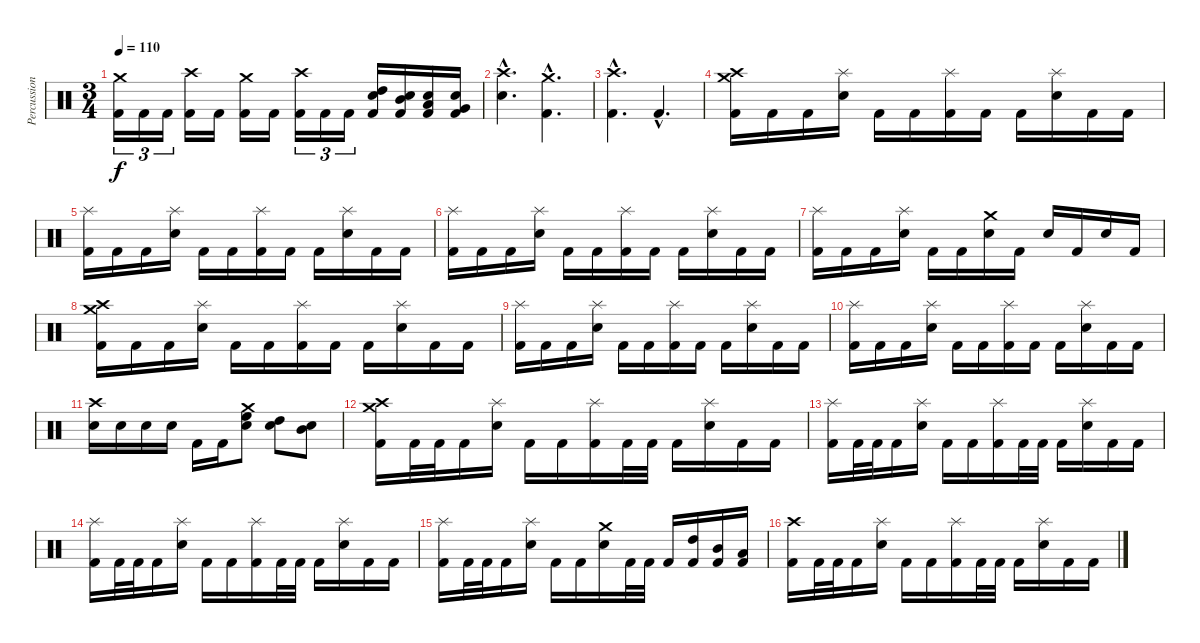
\track ("Percussion" "Percussion") {instrument percussion}
\staff {score}
\articulation defaults
\ts (3 4)
\tempo 110
\clef neutral
\ks c
("Crash medium (hit)" "Kick (hit) 2").16{tu (3 2) dy f} "Kick (hit) 2".16{tu (3 2)} "Kick (hit) 2".16{tu (3 2)} ("Crash high (hit)" "Kick (hit) 2").16 "Kick (hit) 2".16 ("Crash medium (hit)" "Kick (hit) 2").16 "Kick (hit) 2".16 ("Crash high (hit)" "Kick (hit) 2").16{tu (3 2)} "Kick (hit) 2".16{tu (3 2)} "Kick (hit) 2".16{tu (3 2)} ("High Tom (hit)" "Electric Snare (hit)" "Kick (hit) 2").16 ("Mid Tom (hit)" "Electric Snare (hit)" "Kick (hit) 2").16 ("Low Tom (hit)" "Electric Snare (hit)" "Kick (hit) 2").16 ("Very Low Tom (hit)" "Electric Snare (hit)" "Kick (hit) 2").16 |
("Crash high (hit)"{hac} "Electric Snare (hit)"{hac}).4{d} ("Crash medium (hit)"{hac} "Kick (hit) 2"{hac}).4{d} |
("Crash high (hit)"{hac} "Kick (hit) 2"{hac}).4{d} "Kick (hit) 2"{hac}.4{d} |
("Crash high (hit)" "Crash medium (hit)" "Kick (hit) 2").16 "Kick (hit) 2".16 "Kick (hit) 2".16 ("Splash (hit)" "Electric Snare (hit)").16 "Kick (hit) 2".16 "Kick (hit) 2".16 ("Splash (hit)" "Kick (hit) 2").16 "Kick (hit) 2".16 "Kick (hit) 2".16 ("Splash (hit)" "Electric Snare (hit)").16 "Kick (hit) 2".16 "Kick (hit) 2".16 |
("Splash (hit)" "Kick (hit) 2").16 "Kick (hit) 2".16 "Kick (hit) 2".16 ("Splash (hit)" "Electric Snare (hit)").16 "Kick (hit) 2".16 "Kick (hit) 2".16 ("Splash (hit)" "Kick (hit) 2").16 "Kick (hit) 2".16 "Kick (hit) 2".16 ("Splash (hit)" "Electric Snare (hit)").16 "Kick (hit) 2".16 "Kick (hit) 2".16 |
("Splash (hit)" "Kick (hit) 2").16 "Kick (hit) 2".16 "Kick (hit) 2".16 ("Splash (hit)" "Electric Snare (hit)").16 "Kick (hit) 2".16 "Kick (hit) 2".16 ("Splash (hit)" "Kick (hit) 2").16 "Kick (hit) 2".16 "Kick (hit) 2".16 ("Splash (hit)" "Electric Snare (hit)").16 "Kick (hit) 2".16 "Kick (hit) 2".16 |
("Splash (hit)" "Kick (hit) 2").16 "Kick (hit) 2".16 "Kick (hit) 2".16 ("Splash (hit)" "Electric Snare (hit)").16 "Kick (hit) 2".16 "Kick (hit) 2".16 ("Crash medium (hit)" "Electric Snare (hit)").16 "Kick (hit) 2".16 "Electric Snare (hit)".16 "Kick (hit) 2".16 "Electric Snare (hit)".16 "Kick (hit) 2".16 |
("Crash high (hit)" "Crash medium (hit)" "Kick (hit) 2").16 "Kick (hit) 2".16 "Kick (hit) 2".16 ("Splash (hit)" "Electric Snare (hit)").16 "Kick (hit) 2".16 "Kick (hit) 2".16 ("Splash (hit)" "Kick (hit) 2").16 "Kick (hit) 2".16 "Kick (hit) 2".16 ("Splash (hit)" "Electric Snare (hit)").16 "Kick (hit) 2".16 "Kick (hit) 2".16 |
("Splash (hit)" "Kick (hit) 2").16 "Kick (hit) 2".16 "Kick (hit) 2".16 ("Splash (hit)" "Electric Snare (hit)").16 "Kick (hit) 2".16 "Kick (hit) 2".16 ("Splash (hit)" "Kick (hit) 2").16 "Kick (hit) 2".16 "Kick (hit) 2".16 ("Splash (hit)" "Electric Snare (hit)").16 "Kick (hit) 2".16 "Kick (hit) 2".16 |
("Splash (hit)" "Kick (hit) 2").16 "Kick (hit) 2".16 "Kick (hit) 2".16 ("Splash (hit)" "Electric Snare (hit)").16 "Kick (hit) 2".16 "Kick (hit) 2".16 ("Splash (hit)" "Kick (hit) 2").16 "Kick (hit) 2".16 "Kick (hit) 2".16 ("Splash (hit)" "Electric Snare (hit)").16 "Kick (hit) 2".16 "Kick (hit) 2".16 |
("Crash high (hit)" "Electric Snare (hit)").16 "Electric Snare (hit)".16 "Electric Snare (hit)".16 "Electric Snare (hit)".16 "Kick (hit) 2".16 "Kick (hit) 2".16 ("Crash medium (hit)" "High Floor Tom (hit)" "Snare (hit) 2").8 ("High Tom (hit)" "Snare (hit) 2").8 ("Mid Tom (hit)" "Snare (hit) 2").8 |
("Crash high (hit)" "Crash medium (hit)" "Kick (hit) 2").16 "Kick (hit) 2".32 "Kick (hit) 2".32 "Kick (hit) 2".16 ("Splash (hit)" "Electric Snare (hit)").16 "Kick (hit) 2".16 "Kick (hit) 2".16 ("Splash (hit)" "Kick (hit) 2").16 "Kick (hit) 2".32 "Kick (hit) 2".32 "Kick (hit) 2".16 ("Splash (hit)" "Electric Snare (hit)").16 "Kick (hit) 2".16 "Kick (hit) 2".16 |
("Splash (hit)" "Kick (hit) 2").16 "Kick (hit) 2".32 "Kick (hit) 2".32 "Kick (hit) 2".16 ("Splash (hit)" "Electric Snare (hit)").16 "Kick (hit) 2".16 "Kick (hit) 2".16 ("Splash (hit)" "Kick (hit) 2").16 "Kick (hit) 2".32 "Kick (hit) 2".32 "Kick (hit) 2".16 ("Splash (hit)" "Electric Snare (hit)").16 "Kick (hit) 2".16 "Kick (hit) 2".16 |
("Splash (hit)" "Kick (hit) 2").16 "Kick (hit) 2".32 "Kick (hit) 2".32 "Kick (hit) 2".16 ("Splash (hit)" "Electric Snare (hit)").16 "Kick (hit) 2".16 "Kick (hit) 2".16 ("Splash (hit)" "Kick (hit) 2").16 "Kick (hit) 2".32 "Kick (hit) 2".32 "Kick (hit) 2".16 ("Splash (hit)" "Electric Snare (hit)").16 "Kick (hit) 2".16 "Kick (hit) 2".16 |
("Splash (hit)" "Kick (hit) 2").16 "Kick (hit) 2".32 "Kick (hit) 2".32 "Kick (hit) 2".16 ("Splash (hit)" "Electric Snare (hit)").16 "Kick (hit) 2".16 "Kick (hit) 2".16 ("Crash medium (hit)" "Electric Snare (hit)").16 "Kick (hit) 2".32 "Kick (hit) 2".32 "Kick (hit) 2".16 ("High Tom (hit)" "Kick (hit) 2").16 ("Mid Tom (hit)" "Kick (hit) 2").16 ("Low Tom (hit)" "Kick (hit) 2").16 |
("Crash high (hit)" "Kick (hit) 2").16 "Kick (hit) 2".32 "Kick (hit) 2".32 "Kick (hit) 2".16 ("Splash (hit)" "Electric Snare (hit)").16 "Kick (hit) 2".16 "Kick (hit) 2".16 ("Splash (hit)" "Kick (hit) 2").16 "Kick (hit) 2".32 "Kick (hit) 2".32 "Kick (hit) 2".16 ("Splash (hit)" "Electric Snare (hit)").16 "Kick (hit) 2".16 "Kick (hit) 2".16
